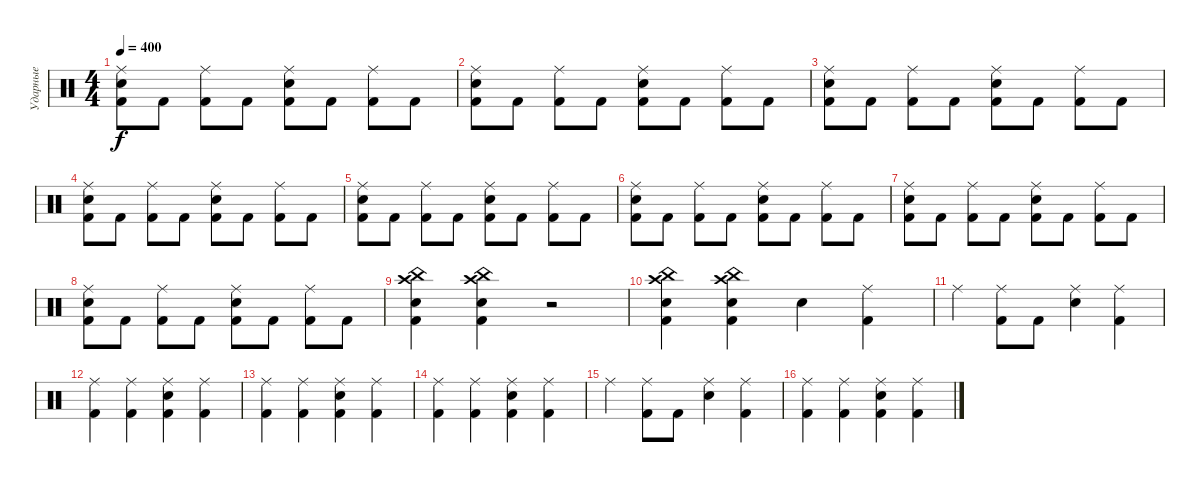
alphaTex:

\track ("Ударные" "Ударные") {instrument percussion}
\staff {score}
\articulation defaults
\ts (4 4)
\tempo 400
\clef neutral
\ks c
("Kick (hit) 2" "Electric Snare (hit)" "Ride (middle)").8{dy f} "Kick (hit) 2".8 ("Kick (hit) 2" "Ride (middle)").8 "Kick (hit) 2".8 ("Kick (hit) 2" "Electric Snare (hit)" "Ride (middle)").8 "Kick (hit) 2".8 ("Kick (hit) 2" "Ride (middle)").8 "Kick (hit) 2".8 |
("Kick (hit) 2" "Electric Snare (hit)" "Ride (middle)").8 "Kick (hit) 2".8 ("Kick (hit) 2" "Ride (middle)").8 "Kick (hit) 2".8 ("Kick (hit) 2" "Electric Snare (hit)" "Ride (middle)").8 "Kick (hit) 2".8 ("Kick (hit) 2" "Ride (middle)").8 "Kick (hit) 2".8 |
("Kick (hit) 2" "Electric Snare (hit)" "Ride (middle)").8 "Kick (hit) 2".8 ("Kick (hit) 2" "Ride (middle)").8 "Kick (hit) 2".8 ("Kick (hit) 2" "Electric Snare (hit)" "Ride (middle)").8 "Kick (hit) 2".8 ("Kick (hit) 2" "Ride (middle)").8 "Kick (hit) 2".8 |
("Kick (hit) 2" "Electric Snare (hit)" "Ride (middle)").8 "Kick (hit) 2".8 ("Kick (hit) 2" "Ride (middle)").8 "Kick (hit) 2".8 ("Kick (hit) 2" "Electric Snare (hit)" "Ride (middle)").8 "Kick (hit) 2".8 ("Kick (hit) 2" "Ride (middle)").8 "Kick (hit) 2".8 |
("Kick (hit) 2" "Electric Snare (hit)" "Ride (middle)").8 "Kick (hit) 2".8 ("Kick (hit) 2" "Ride (middle)").8 "Kick (hit) 2".8 ("Kick (hit) 2" "Electric Snare (hit)" "Ride (middle)").8 "Kick (hit) 2".8 ("Kick (hit) 2" "Ride (middle)").8 "Kick (hit) 2".8 |
("Kick (hit) 2" "Electric Snare (hit)" "Ride (middle)").8 "Kick (hit) 2".8 ("Kick (hit) 2" "Ride (middle)").8 "Kick (hit) 2".8 ("Kick (hit) 2" "Electric Snare (hit)" "Ride (middle)").8 "Kick (hit) 2".8 ("Kick (hit) 2" "Ride (middle)").8 "Kick (hit) 2".8 |
("Kick (hit) 2" "Electric Snare (hit)" "Ride (middle)").8 "Kick (hit) 2".8 ("Kick (hit) 2" "Ride (middle)").8 "Kick (hit) 2".8 ("Kick (hit) 2" "Electric Snare (hit)" "Ride (middle)").8 "Kick (hit) 2".8 ("Kick (hit) 2" "Ride (middle)").8 "Kick (hit) 2".8 |
("Kick (hit) 2" "Electric Snare (hit)" "Ride (middle)").8 "Kick (hit) 2".8 ("Kick (hit) 2" "Ride (middle)").8 "Kick (hit) 2".8 ("Kick (hit) 2" "Electric Snare (hit)" "Ride (middle)").8 "Kick (hit) 2".8 ("Kick (hit) 2" "Ride (middle)").8 "Kick (hit) 2".8 |
("Kick (hit) 2" "Electric Snare (hit)" "Crash high (hit)" "China (hit)").4 ("China (hit)" "Crash high (hit)" "Kick (hit) 2" "Electric Snare (hit)").4 r.2 |
("Kick (hit) 2" "Electric Snare (hit)" "Crash high (hit)" "China (hit)").4 ("China (hit)" "Crash high (hit)" "Kick (hit) 2" "Electric Snare (hit)").4 "Electric Snare (hit)".4 ("Kick (hit) 2" "Ride (middle)").4 |
"Ride (middle)".4 ("Kick (hit) 2" "Ride (middle)").8 "Kick (hit) 2".8 ("Electric Snare (hit)" "Ride (middle)").4 ("Kick (hit) 2" "Ride (middle)").4 |
("Kick (hit) 2" "Ride (middle)").4 ("Kick (hit) 2" "Ride (middle)").4 ("Kick (hit) 2" "Ride (middle)" "Electric Snare (hit)").4 ("Kick (hit) 2" "Ride (middle)").4 |
("Kick (hit) 2" "Ride (middle)").4 ("Kick (hit) 2" "Ride (middle)").4 ("Kick (hit) 2" "Ride (middle)" "Electric Snare (hit)").4 ("Kick (hit) 2" "Ride (middle)").4 |
("Kick (hit) 2" "Ride (middle)").4 ("Kick (hit) 2" "Ride (middle)").4 ("Kick (hit) 2" "Ride (middle)" "Electric Snare (hit)").4 ("Kick (hit) 2" "Ride (middle)").4 |
"Ride (middle)".4 ("Kick (hit) 2" "Ride (middle)").8 "Kick (hit) 2".8 ("Electric Snare (hit)" "Ride (middle)").4 ("Kick (hit) 2" "Ride (middle)").4 |
("Kick (hit) 2" "Ride (middle)").4 ("Kick (hit) 2" "Ride (middle)").4 ("Kick (hit) 2" "Ride (middle)" "Electric Snare (hit)").4 ("Kick (hit) 2" "Ride (middle)").4
